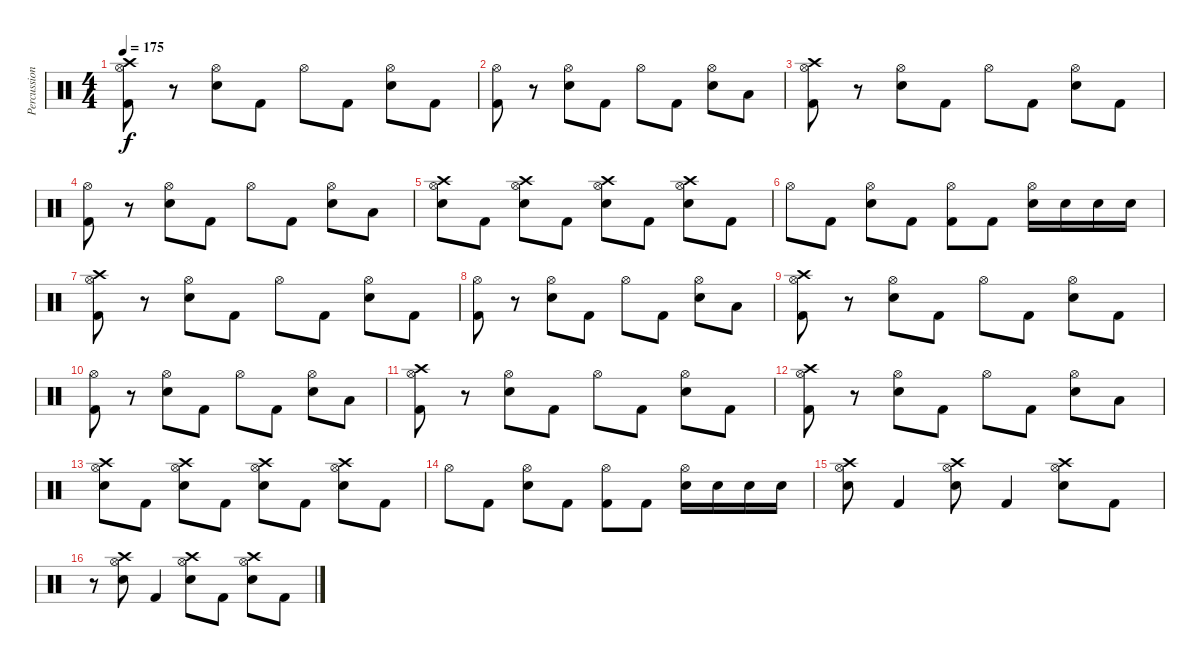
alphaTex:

\track ("Percussion" "Percussion") {instrument percussion}
\staff {score}
\articulation defaults
\ts (4 4)
\tempo 175
\clef neutral
\ks c
("Crash high (hit)" "Hi-Hat (open)" "Kick (hit) 2").8{dy f} r.8 ("Hi-Hat (open)" "Electric Snare (hit)").8 "Kick (hit) 2".8 "Hi-Hat (open)".8 "Kick (hit) 2".8 ("Hi-Hat (open)" "Electric Snare (hit)").8 "Kick (hit) 2".8 |
("Hi-Hat (open)" "Kick (hit) 2").8 r.8 ("Hi-Hat (open)" "Electric Snare (hit)").8 "Kick (hit) 2".8 "Hi-Hat (open)".8 "Kick (hit) 2".8 ("Hi-Hat (open)" "Electric Snare (hit)").8 "Low Tom (hit)".8 |
("Crash high (hit)" "Hi-Hat (open)" "Kick (hit) 2").8 r.8 ("Hi-Hat (open)" "Electric Snare (hit)").8 "Kick (hit) 2".8 "Hi-Hat (open)".8 "Kick (hit) 2".8 ("Hi-Hat (open)" "Electric Snare (hit)").8 "Kick (hit) 2".8 |
("Hi-Hat (open)" "Kick (hit) 2").8 r.8 ("Hi-Hat (open)" "Electric Snare (hit)").8 "Kick (hit) 2".8 "Hi-Hat (open)".8 "Kick (hit) 2".8 ("Hi-Hat (open)" "Electric Snare (hit)").8 "Low Tom (hit)".8 |
("Crash high (hit)" "Hi-Hat (open)" "Electric Snare (hit)").8 "Kick (hit) 2".8 ("Crash high (hit)" "Hi-Hat (open)" "Electric Snare (hit)").8 "Kick (hit) 2".8 ("Crash high (hit)" "Hi-Hat (open)" "Electric Snare (hit)").8 "Kick (hit) 2".8 ("Crash high (hit)" "Hi-Hat (open)" "Electric Snare (hit)").8 "Kick (hit) 2".8 |
"Hi-Hat (open)".8 "Kick (hit) 2".8 ("Hi-Hat (open)" "Electric Snare (hit)").8 "Kick (hit) 2".8 ("Hi-Hat (open)" "Kick (hit) 2").8 "Kick (hit) 2".8 ("Hi-Hat (open)" "Electric Snare (hit)").16 "Electric Snare (hit)".16 "Electric Snare (hit)".16 "Electric Snare (hit)".16 |
("Crash high (hit)" "Hi-Hat (open)" "Kick (hit) 2").8 r.8 ("Hi-Hat (open)" "Electric Snare (hit)").8 "Kick (hit) 2".8 "Hi-Hat (open)".8 "Kick (hit) 2".8 ("Hi-Hat (open)" "Electric Snare (hit)").8 "Kick (hit) 2".8 |
("Hi-Hat (open)" "Kick (hit) 2").8 r.8 ("Hi-Hat (open)" "Electric Snare (hit)").8 "Kick (hit) 2".8 "Hi-Hat (open)".8 "Kick (hit) 2".8 ("Hi-Hat (open)" "Electric Snare (hit)").8 "Low Tom (hit)".8 |
("Crash high (hit)" "Hi-Hat (open)" "Kick (hit) 2").8 r.8 ("Hi-Hat (open)" "Electric Snare (hit)").8 "Kick (hit) 2".8 "Hi-Hat (open)".8 "Kick (hit) 2".8 ("Hi-Hat (open)" "Electric Snare (hit)").8 "Kick (hit) 2".8 |
("Hi-Hat (open)" "Kick (hit) 2").8 r.8 ("Hi-Hat (open)" "Electric Snare (hit)").8 "Kick (hit) 2".8 "Hi-Hat (open)".8 "Kick (hit) 2".8 ("Hi-Hat (open)" "Electric Snare (hit)").8 "Low Tom (hit)".8 |
("Crash high (hit)" "Hi-Hat (open)" "Kick (hit) 2").8 r.8 ("Hi-Hat (open)" "Electric Snare (hit)").8 "Kick (hit) 2".8 "Hi-Hat (open)".8 "Kick (hit) 2".8 ("Hi-Hat (open)" "Electric Snare (hit)").8 "Kick (hit) 2".8 |
("Crash high (hit)" "Hi-Hat (open)" "Kick (hit) 2").8 r.8 ("Hi-Hat (open)" "Electric Snare (hit)").8 "Kick (hit) 2".8 "Hi-Hat (open)".8 "Kick (hit) 2".8 ("Hi-Hat (open)" "Electric Snare (hit)").8 "Low Tom (hit)".8 |
("Crash high (hit)" "Hi-Hat (open)" "Electric Snare (hit)").8 "Kick (hit) 2".8 ("Crash high (hit)" "Hi-Hat (open)" "Electric Snare (hit)").8 "Kick (hit) 2".8 ("Crash high (hit)" "Hi-Hat (open)" "Electric Snare (hit)").8 "Kick (hit) 2".8 ("Crash high (hit)" "Hi-Hat (open)" "Electric Snare (hit)").8 "Kick (hit) 2".8 |
"Hi-Hat (open)".8 "Kick (hit) 2".8 ("Hi-Hat (open)" "Electric Snare (hit)").8 "Kick (hit) 2".8 ("Hi-Hat (open)" "Kick (hit) 2").8 "Kick (hit) 2".8 ("Hi-Hat (open)" "Electric Snare (hit)").16 "Electric Snare (hit)".16 "Electric Snare (hit)".16 "Electric Snare (hit)".16 |
("Crash high (hit)" "Hi-Hat (open)" "Electric Snare (hit)").8 "Kick (hit) 2".4 ("Crash high (hit)" "Hi-Hat (open)" "Electric Snare (hit)").8 "Kick (hit) 2".4 ("Crash high (hit)" "Hi-Hat (open)" "Electric Snare (hit)").8 "Kick (hit) 2".8 |
r.8 ("Crash high (hit)" "Hi-Hat (open)" "Electric Snare (hit)").8 "Kick (hit) 2".4 ("Crash high (hit)" "Hi-Hat (open)" "Electric Snare (hit)").8 "Kick (hit) 2".8 ("Crash high (hit)" "Hi-Hat (open)" "Electric Snare (hit)").8 "Kick (hit) 2".8
